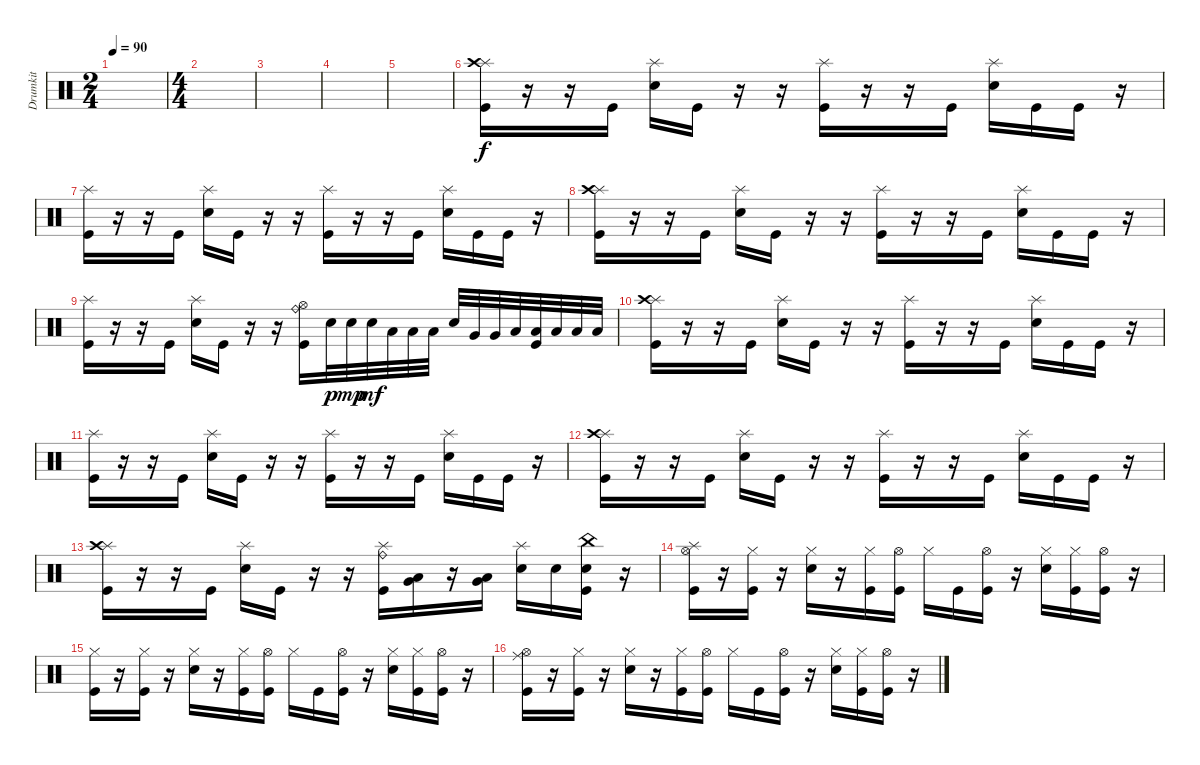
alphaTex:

\track ("Drumkit" "Drumkit") {instrument percussion}
\staff {score}
\articulation defaults
\ts (2 4)
\tempo 90
\clef neutral
\ks c
|
\ts (4 4)
|
|
|
|
("Kick (hit)" "Splash (hit)" "Crash high (hit)").16 r.16 r.16 "Kick (hit)".16 ("Snare (hit) 2" "Splash (hit)").16 "Kick (hit)".16 r.16 r.16 ("Kick (hit)" "Splash (hit)").16 r.16 r.16 "Kick (hit)".16 ("Snare (hit) 2" "Splash (hit)").16 "Kick (hit)".16 "Kick (hit)".16 r.16 |
("Kick (hit)" "Splash (hit)").16 r.16 r.16 "Kick (hit)".16 ("Snare (hit) 2" "Splash (hit)").16 "Kick (hit)".16 r.16 r.16 ("Kick (hit)" "Splash (hit)").16 r.16 r.16 "Kick (hit)".16 ("Snare (hit) 2" "Splash (hit)").16 "Kick (hit)".16 "Kick (hit)".16 r.16 |
("Kick (hit)" "Splash (hit)" "Crash high (hit)").16 r.16 r.16 "Kick (hit)".16 ("Snare (hit) 2" "Splash (hit)").16 "Kick (hit)".16 r.16 r.16 ("Kick (hit)" "Splash (hit)").16 r.16 r.16 "Kick (hit)".16 ("Snare (hit) 2" "Splash (hit)").16 "Kick (hit)".16 "Kick (hit)".16 r.16 |
("Kick (hit)" "Splash (hit)").16 r.16 r.16 "Kick (hit)".16 ("Snare (hit) 2" "Splash (hit)").16 "Kick (hit)".16 r.16 r.16 ("Kick (hit)" "Hi-Hat (open)" "Ride (bell)").16 "Snare (hit) 2".32{dy p} "Snare (hit) 2".32{dy mp} "Snare (hit) 2".32{dy mf} "Low Tom (hit)".32 "Low Tom (hit)".32 "Low Floor Tom (hit)".32 "Snare (hit) 2".32 "Very Low Tom (hit)".32 "Very Low Tom (hit)".32 "Low Floor Tom (hit)".32 ("Low Tom (hit)" "Kick (hit)").32 "Low Floor Tom (hit)".32 "Low Floor Tom (hit)".32 "Low Floor Tom (hit)".32 |
("Kick (hit)" "Splash (hit)" "Crash high (hit)").16 r.16 r.16 "Kick (hit)".16 ("Snare (hit) 2" "Splash (hit)").16 "Kick (hit)".16 r.16 r.16 ("Kick (hit)" "Splash (hit)").16 r.16 r.16 "Kick (hit)".16 ("Snare (hit) 2" "Splash (hit)").16 "Kick (hit)".16 "Kick (hit)".16 r.16 |
("Kick (hit)" "Splash (hit)").16 r.16 r.16 "Kick (hit)".16 ("Snare (hit) 2" "Splash (hit)").16 "Kick (hit)".16 r.16 r.16 ("Kick (hit)" "Splash (hit)").16 r.16 r.16 "Kick (hit)".16 ("Snare (hit) 2" "Splash (hit)").16 "Kick (hit)".16 "Kick (hit)".16 r.16 |
("Kick (hit)" "Splash (hit)" "Crash high (hit)").16 r.16 r.16 "Kick (hit)".16 ("Snare (hit) 2" "Splash (hit)").16 "Kick (hit)".16 r.16 r.16 ("Kick (hit)" "Splash (hit)").16 r.16 r.16 "Kick (hit)".16 ("Snare (hit) 2" "Splash (hit)").16 "Kick (hit)".16 "Kick (hit)".16 r.16 |
("Kick (hit)" "Splash (hit)" "Crash high (hit)").16 r.16 r.16 "Kick (hit)".16 ("Snare (hit) 2" "Splash (hit)").16 "Kick (hit)".16 r.16 r.16 ("Kick (hit)" "Splash (hit)" "Ride (bell)").16 ("Low Tom (hit)" "Very Low Tom (hit)").16 r.16 ("Very Low Tom (hit)" "Low Floor Tom (hit)").16 ("Snare (hit) 2" "Splash (hit)").16 "Snare (hit) 2".16 ("Kick (hit)" "Snare (hit) 2" "China (hit)").16 r.16 |
("Kick (hit)" "Hi-Hat (open)" "Splash (hit)").16 r.16 ("Kick (hit)" "Hi-Hat (closed)").16 r.16 ("Snare (hit) 2" "Hi-Hat (closed)").16 r.16 ("Kick (hit)" "Hi-Hat (closed)").16 ("Kick (hit)" "Hi-Hat (open)").16 "Hi-Hat (closed)".16 "Kick (hit)".16 ("Kick (hit)" "Hi-Hat (open)").16 r.16 ("Snare (hit) 2" "Hi-Hat (closed)").16 ("Kick (hit)" "Hi-Hat (closed)").16 ("Kick (hit)" "Hi-Hat (open)").16 r.16 |
("Kick (hit)" "Hi-Hat (closed)").16 r.16 ("Kick (hit)" "Hi-Hat (closed)").16 r.16 ("Snare (hit) 2" "Hi-Hat (closed)").16 r.16 ("Kick (hit)" "Hi-Hat (closed)").16 ("Kick (hit)" "Hi-Hat (open)").16 "Hi-Hat (closed)".16 "Kick (hit)".16 ("Kick (hit)" "Hi-Hat (open)").16 r.16 ("Snare (hit) 2" "Hi-Hat (closed)").16 ("Kick (hit)" "Hi-Hat (closed)").16 ("Kick (hit)" "Hi-Hat (open)").16 r.16 |
("Kick (hit)" "Hi-Hat (open)" "Ride (middle)").16 r.16 ("Kick (hit)" "Hi-Hat (closed)").16 r.16 ("Snare (hit) 2" "Hi-Hat (closed)").16 r.16 ("Kick (hit)" "Hi-Hat (closed)").16 ("Kick (hit)" "Hi-Hat (open)").16 "Hi-Hat (closed)".16 "Kick (hit)".16 ("Kick (hit)" "Hi-Hat (open)").16 r.16 ("Snare (hit) 2" "Hi-Hat (closed)").16 ("Kick (hit)" "Hi-Hat (closed)").16 ("Kick (hit)" "Hi-Hat (open)").16 r.16
